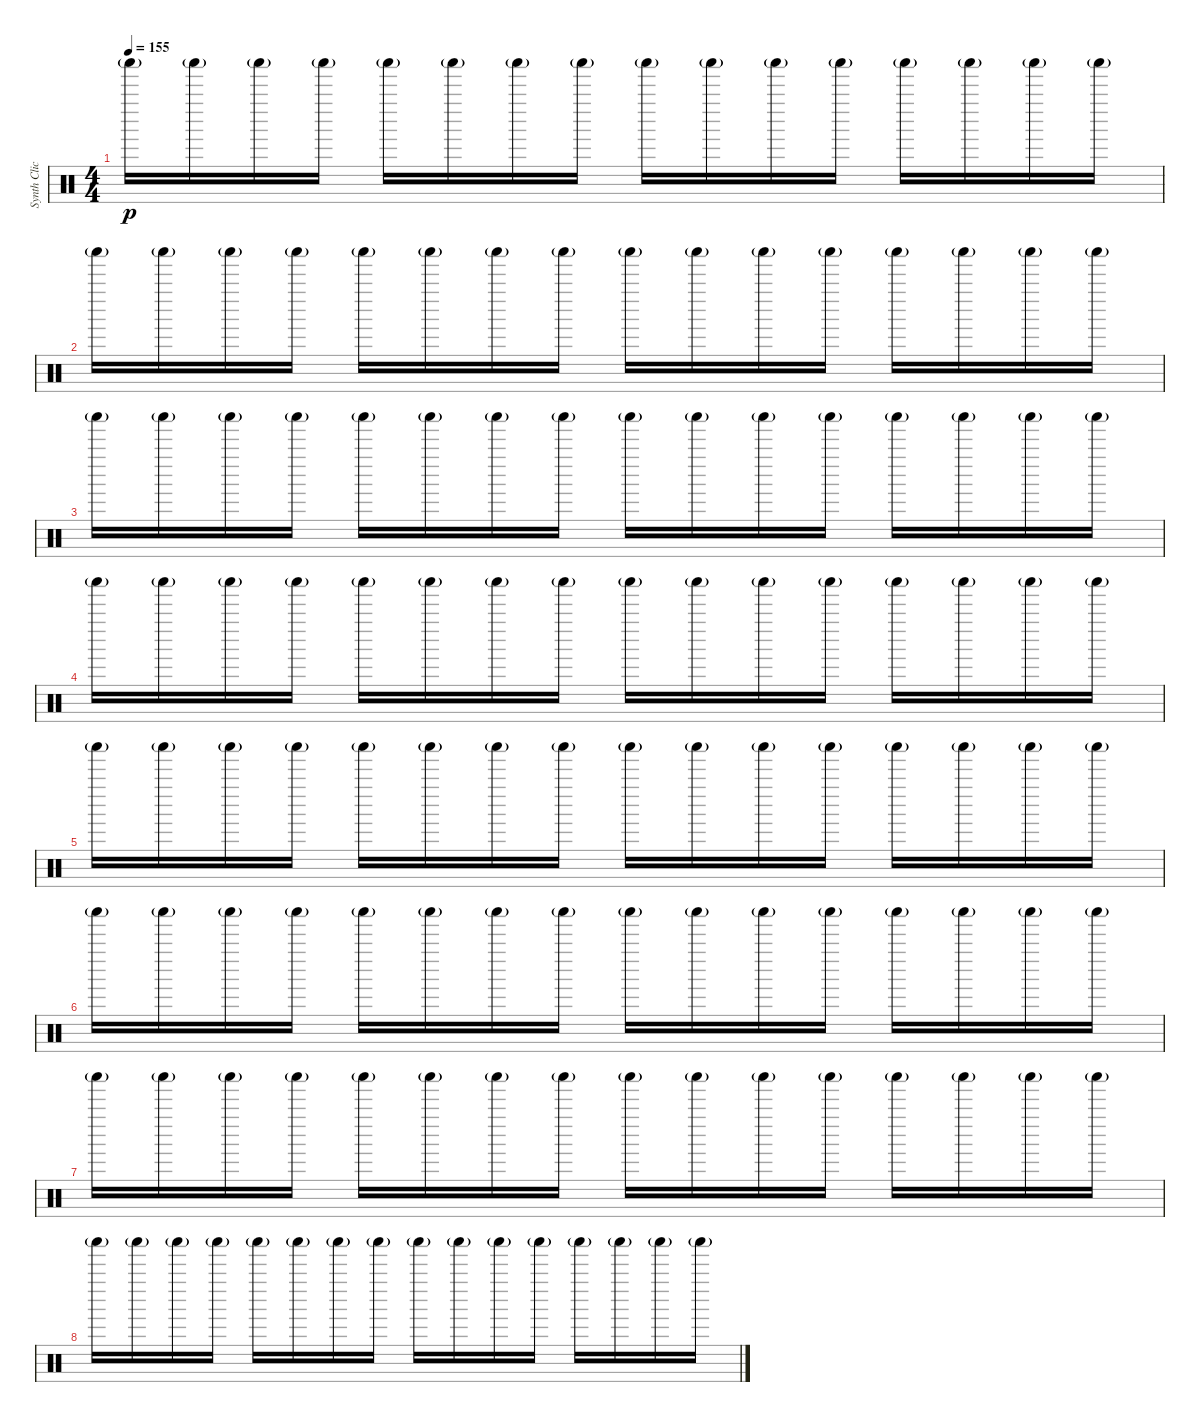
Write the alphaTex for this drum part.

\track ("Synth Click" "Synth Clic") {instrument percussion}
\staff {score}
\articulation defaults
\ts (4 4)
\tempo 155
\clef neutral
\ks c "Shaker (hit)"{g}.16{dy p} "Shaker (hit)"{g}.16 "Shaker (hit)"{g}.16 "Shaker (hit)"{g}.16 "Shaker (hit)"{g}.16 "Shaker (hit)"{g}.16 "Shaker (hit)"{g}.16 "Shaker (hit)"{g}.16 "Shaker (hit)"{g}.16 "Shaker (hit)"{g}.16 "Shaker (hit)"{g}.16 "Shaker (hit)"{g}.16 "Shaker (hit)"{g}.16 "Shaker (hit)"{g}.16 "Shaker (hit)"{g}.16 "Shaker (hit)"{g}.16
|
"Shaker (hit)"{g}.16 "Shaker (hit)"{g}.16 "Shaker (hit)"{g}.16 "Shaker (hit)"{g}.16 "Shaker (hit)"{g}.16 "Shaker (hit)"{g}.16 "Shaker (hit)"{g}.16 "Shaker (hit)"{g}.16 "Shaker (hit)"{g}.16 "Shaker (hit)"{g}.16 "Shaker (hit)"{g}.16 "Shaker (hit)"{g}.16 "Shaker (hit)"{g}.16 "Shaker (hit)"{g}.16 "Shaker (hit)"{g}.16 "Shaker (hit)"{g}.16 |
"Shaker (hit)"{g}.16 "Shaker (hit)"{g}.16 "Shaker (hit)"{g}.16 "Shaker (hit)"{g}.16 "Shaker (hit)"{g}.16 "Shaker (hit)"{g}.16 "Shaker (hit)"{g}.16 "Shaker (hit)"{g}.16 "Shaker (hit)"{g}.16 "Shaker (hit)"{g}.16 "Shaker (hit)"{g}.16 "Shaker (hit)"{g}.16 "Shaker (hit)"{g}.16 "Shaker (hit)"{g}.16 "Shaker (hit)"{g}.16 "Shaker (hit)"{g}.16 |
"Shaker (hit)"{g}.16 "Shaker (hit)"{g}.16 "Shaker (hit)"{g}.16 "Shaker (hit)"{g}.16 "Shaker (hit)"{g}.16 "Shaker (hit)"{g}.16 "Shaker (hit)"{g}.16 "Shaker (hit)"{g}.16 "Shaker (hit)"{g}.16 "Shaker (hit)"{g}.16 "Shaker (hit)"{g}.16 "Shaker (hit)"{g}.16 "Shaker (hit)"{g}.16 "Shaker (hit)"{g}.16 "Shaker (hit)"{g}.16 "Shaker (hit)"{g}.16 |
"Shaker (hit)"{g}.16 "Shaker (hit)"{g}.16 "Shaker (hit)"{g}.16 "Shaker (hit)"{g}.16 "Shaker (hit)"{g}.16 "Shaker (hit)"{g}.16 "Shaker (hit)"{g}.16 "Shaker (hit)"{g}.16 "Shaker (hit)"{g}.16 "Shaker (hit)"{g}.16 "Shaker (hit)"{g}.16 "Shaker (hit)"{g}.16 "Shaker (hit)"{g}.16 "Shaker (hit)"{g}.16 "Shaker (hit)"{g}.16 "Shaker (hit)"{g}.16 |
"Shaker (hit)"{g}.16 "Shaker (hit)"{g}.16 "Shaker (hit)"{g}.16 "Shaker (hit)"{g}.16 "Shaker (hit)"{g}.16 "Shaker (hit)"{g}.16 "Shaker (hit)"{g}.16 "Shaker (hit)"{g}.16 "Shaker (hit)"{g}.16 "Shaker (hit)"{g}.16 "Shaker (hit)"{g}.16 "Shaker (hit)"{g}.16 "Shaker (hit)"{g}.16 "Shaker (hit)"{g}.16 "Shaker (hit)"{g}.16 "Shaker (hit)"{g}.16 |
"Shaker (hit)"{g}.16 "Shaker (hit)"{g}.16 "Shaker (hit)"{g}.16 "Shaker (hit)"{g}.16 "Shaker (hit)"{g}.16 "Shaker (hit)"{g}.16 "Shaker (hit)"{g}.16 "Shaker (hit)"{g}.16 "Shaker (hit)"{g}.16 "Shaker (hit)"{g}.16 "Shaker (hit)"{g}.16 "Shaker (hit)"{g}.16 "Shaker (hit)"{g}.16 "Shaker (hit)"{g}.16 "Shaker (hit)"{g}.16 "Shaker (hit)"{g}.16 |
"Shaker (hit)"{g}.16 "Shaker (hit)"{g}.16 "Shaker (hit)"{g}.16 "Shaker (hit)"{g}.16 "Shaker (hit)"{g}.16 "Shaker (hit)"{g}.16 "Shaker (hit)"{g}.16 "Shaker (hit)"{g}.16 "Shaker (hit)"{g}.16 "Shaker (hit)"{g}.16 "Shaker (hit)"{g}.16 "Shaker (hit)"{g}.16 "Shaker (hit)"{g}.16 "Shaker (hit)"{g}.16 "Shaker (hit)"{g}.16 "Shaker (hit)"{g}.16
